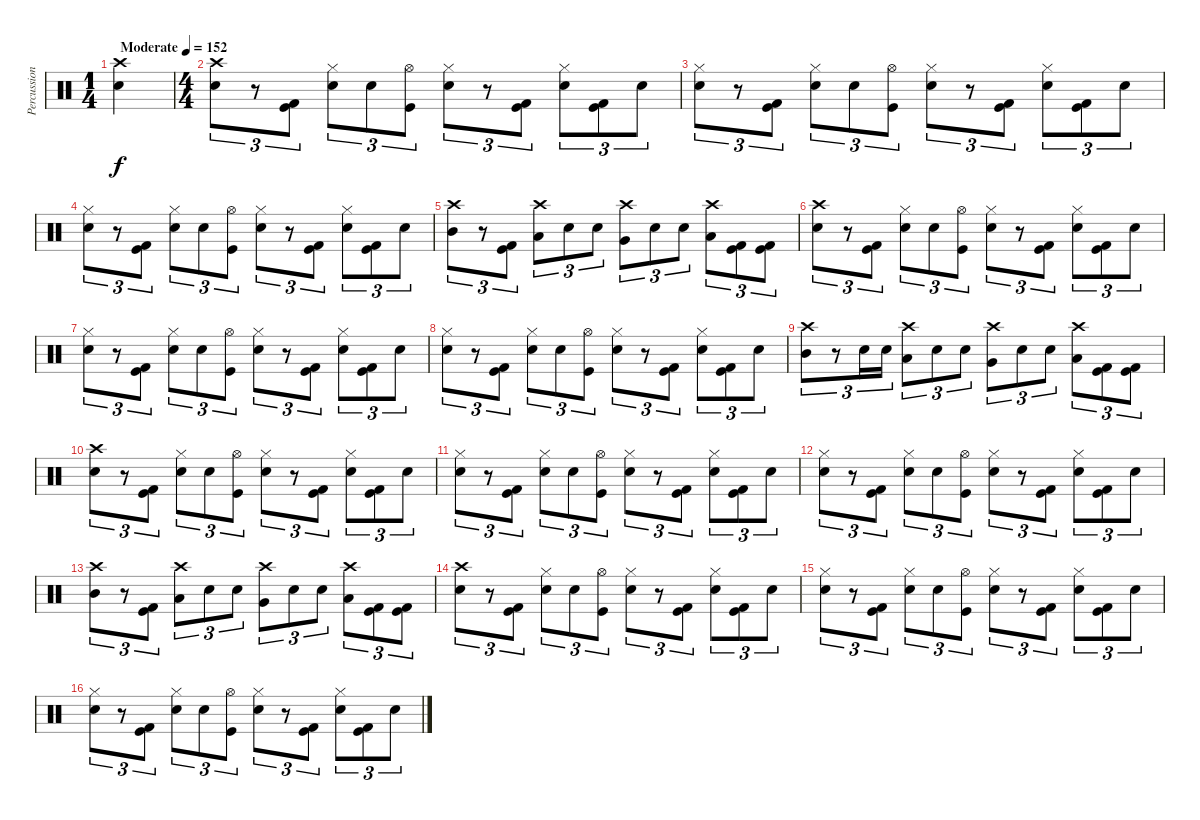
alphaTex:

\track ("Percussion" "Percussion") {instrument percussion}
\staff {score}
\articulation defaults
\ts (1 4)
\tempo (152 "Moderate")
\clef neutral
\ks c
("Crash high (hit)" "Electric Snare (hit)").4{dy f} |
\ts (4 4)
("Crash high (hit)" "Electric Snare (hit)").8{tu (3 2)} r.8{tu (3 2)} ("Kick (hit) 2" "Kick (hit)").8{tu (3 2)} ("Hi-Hat (closed)" "Electric Snare (hit)").8{tu (3 2)} "Electric Snare (hit)".8{tu (3 2)} ("Hi-Hat (open)" "Kick (hit)").8{tu (3 2)} ("Hi-Hat (closed)" "Electric Snare (hit)").8{tu (3 2)} r.8{tu (3 2)} ("Kick (hit) 2" "Kick (hit)").8{tu (3 2)} ("Hi-Hat (closed)" "Electric Snare (hit)").8{tu (3 2)} ("Kick (hit) 2" "Kick (hit)").8{tu (3 2)} "Electric Snare (hit)".8{tu (3 2)} |
("Hi-Hat (closed)" "Electric Snare (hit)").8{tu (3 2)} r.8{tu (3 2)} ("Kick (hit) 2" "Kick (hit)").8{tu (3 2)} ("Hi-Hat (closed)" "Electric Snare (hit)").8{tu (3 2)} "Electric Snare (hit)".8{tu (3 2)} ("Hi-Hat (open)" "Kick (hit)").8{tu (3 2)} ("Hi-Hat (closed)" "Electric Snare (hit)").8{tu (3 2)} r.8{tu (3 2)} ("Kick (hit) 2" "Kick (hit)").8{tu (3 2)} ("Hi-Hat (closed)" "Electric Snare (hit)").8{tu (3 2)} ("Kick (hit) 2" "Kick (hit)").8{tu (3 2)} "Electric Snare (hit)".8{tu (3 2)} |
("Hi-Hat (closed)" "Electric Snare (hit)").8{tu (3 2)} r.8{tu (3 2)} ("Kick (hit) 2" "Kick (hit)").8{tu (3 2)} ("Hi-Hat (closed)" "Electric Snare (hit)").8{tu (3 2)} "Electric Snare (hit)".8{tu (3 2)} ("Hi-Hat (open)" "Kick (hit)").8{tu (3 2)} ("Hi-Hat (closed)" "Electric Snare (hit)").8{tu (3 2)} r.8{tu (3 2)} ("Kick (hit) 2" "Kick (hit)").8{tu (3 2)} ("Hi-Hat (closed)" "Electric Snare (hit)").8{tu (3 2)} ("Kick (hit) 2" "Kick (hit)").8{tu (3 2)} "Electric Snare (hit)".8{tu (3 2)} |
("Crash high (hit)" "Mid Tom (hit)").8{tu (3 2)} r.8{tu (3 2)} ("Kick (hit) 2" "Kick (hit)").8{tu (3 2)} ("Crash high (hit)" "Low Tom (hit)").8{tu (3 2)} "Electric Snare (hit)".8{tu (3 2)} "Electric Snare (hit)".8{tu (3 2)} ("Crash high (hit)" "Very Low Tom (hit)").8{tu (3 2)} "Electric Snare (hit)".8{tu (3 2)} "Electric Snare (hit)".8{tu (3 2)} ("Crash high (hit)" "Low Floor Tom (hit)").8{tu (3 2)} ("Kick (hit) 2" "Kick (hit)").8{tu (3 2)} ("Kick (hit) 2" "Kick (hit)").8{tu (3 2)} |
("Crash high (hit)" "Electric Snare (hit)").8{tu (3 2)} r.8{tu (3 2)} ("Kick (hit) 2" "Kick (hit)").8{tu (3 2)} ("Hi-Hat (closed)" "Electric Snare (hit)").8{tu (3 2)} "Electric Snare (hit)".8{tu (3 2)} ("Hi-Hat (open)" "Kick (hit)").8{tu (3 2)} ("Hi-Hat (closed)" "Electric Snare (hit)").8{tu (3 2)} r.8{tu (3 2)} ("Kick (hit) 2" "Kick (hit)").8{tu (3 2)} ("Hi-Hat (closed)" "Electric Snare (hit)").8{tu (3 2)} ("Kick (hit) 2" "Kick (hit)").8{tu (3 2)} "Electric Snare (hit)".8{tu (3 2)} |
("Hi-Hat (closed)" "Electric Snare (hit)").8{tu (3 2)} r.8{tu (3 2)} ("Kick (hit) 2" "Kick (hit)").8{tu (3 2)} ("Hi-Hat (closed)" "Electric Snare (hit)").8{tu (3 2)} "Electric Snare (hit)".8{tu (3 2)} ("Hi-Hat (open)" "Kick (hit)").8{tu (3 2)} ("Hi-Hat (closed)" "Electric Snare (hit)").8{tu (3 2)} r.8{tu (3 2)} ("Kick (hit) 2" "Kick (hit)").8{tu (3 2)} ("Hi-Hat (closed)" "Electric Snare (hit)").8{tu (3 2)} ("Kick (hit) 2" "Kick (hit)").8{tu (3 2)} "Electric Snare (hit)".8{tu (3 2)} |
("Hi-Hat (closed)" "Electric Snare (hit)").8{tu (3 2)} r.8{tu (3 2)} ("Kick (hit) 2" "Kick (hit)").8{tu (3 2)} ("Hi-Hat (closed)" "Electric Snare (hit)").8{tu (3 2)} "Electric Snare (hit)".8{tu (3 2)} ("Hi-Hat (open)" "Kick (hit)").8{tu (3 2)} ("Hi-Hat (closed)" "Electric Snare (hit)").8{tu (3 2)} r.8{tu (3 2)} ("Kick (hit) 2" "Kick (hit)").8{tu (3 2)} ("Hi-Hat (closed)" "Electric Snare (hit)").8{tu (3 2)} ("Kick (hit) 2" "Kick (hit)").8{tu (3 2)} "Electric Snare (hit)".8{tu (3 2)} |
("Crash high (hit)" "Mid Tom (hit)").8{tu (3 2)} r.8{tu (3 2)} "Electric Snare (hit)".16{tu (3 2)} "Electric Snare (hit)".16{tu (3 2)} ("Crash high (hit)" "Low Tom (hit)").8{tu (3 2)} "Electric Snare (hit)".8{tu (3 2)} "Electric Snare (hit)".8{tu (3 2)} ("Crash high (hit)" "Very Low Tom (hit)").8{tu (3 2)} "Electric Snare (hit)".8{tu (3 2)} "Electric Snare (hit)".8{tu (3 2)} ("Crash high (hit)" "Low Floor Tom (hit)").8{tu (3 2)} ("Kick (hit) 2" "Kick (hit)").8{tu (3 2)} ("Kick (hit) 2" "Kick (hit)").8{tu (3 2)} |
("Crash high (hit)" "Electric Snare (hit)").8{tu (3 2)} r.8{tu (3 2)} ("Kick (hit) 2" "Kick (hit)").8{tu (3 2)} ("Hi-Hat (closed)" "Electric Snare (hit)").8{tu (3 2)} "Electric Snare (hit)".8{tu (3 2)} ("Hi-Hat (open)" "Kick (hit)").8{tu (3 2)} ("Hi-Hat (closed)" "Electric Snare (hit)").8{tu (3 2)} r.8{tu (3 2)} ("Kick (hit) 2" "Kick (hit)").8{tu (3 2)} ("Hi-Hat (closed)" "Electric Snare (hit)").8{tu (3 2)} ("Kick (hit) 2" "Kick (hit)").8{tu (3 2)} "Electric Snare (hit)".8{tu (3 2)} |
("Hi-Hat (closed)" "Electric Snare (hit)").8{tu (3 2)} r.8{tu (3 2)} ("Kick (hit) 2" "Kick (hit)").8{tu (3 2)} ("Hi-Hat (closed)" "Electric Snare (hit)").8{tu (3 2)} "Electric Snare (hit)".8{tu (3 2)} ("Hi-Hat (open)" "Kick (hit)").8{tu (3 2)} ("Hi-Hat (closed)" "Electric Snare (hit)").8{tu (3 2)} r.8{tu (3 2)} ("Kick (hit) 2" "Kick (hit)").8{tu (3 2)} ("Hi-Hat (closed)" "Electric Snare (hit)").8{tu (3 2)} ("Kick (hit) 2" "Kick (hit)").8{tu (3 2)} "Electric Snare (hit)".8{tu (3 2)} |
("Hi-Hat (closed)" "Electric Snare (hit)").8{tu (3 2)} r.8{tu (3 2)} ("Kick (hit) 2" "Kick (hit)").8{tu (3 2)} ("Hi-Hat (closed)" "Electric Snare (hit)").8{tu (3 2)} "Electric Snare (hit)".8{tu (3 2)} ("Hi-Hat (open)" "Kick (hit)").8{tu (3 2)} ("Hi-Hat (closed)" "Electric Snare (hit)").8{tu (3 2)} r.8{tu (3 2)} ("Kick (hit) 2" "Kick (hit)").8{tu (3 2)} ("Hi-Hat (closed)" "Electric Snare (hit)").8{tu (3 2)} ("Kick (hit) 2" "Kick (hit)").8{tu (3 2)} "Electric Snare (hit)".8{tu (3 2)} |
("Crash high (hit)" "Mid Tom (hit)").8{tu (3 2)} r.8{tu (3 2)} ("Kick (hit) 2" "Kick (hit)").8{tu (3 2)} ("Crash high (hit)" "Low Tom (hit)").8{tu (3 2)} "Electric Snare (hit)".8{tu (3 2)} "Electric Snare (hit)".8{tu (3 2)} ("Crash high (hit)" "Very Low Tom (hit)").8{tu (3 2)} "Electric Snare (hit)".8{tu (3 2)} "Electric Snare (hit)".8{tu (3 2)} ("Crash high (hit)" "Low Floor Tom (hit)").8{tu (3 2)} ("Kick (hit) 2" "Kick (hit)").8{tu (3 2)} ("Kick (hit) 2" "Kick (hit)").8{tu (3 2)} |
("Crash high (hit)" "Electric Snare (hit)").8{tu (3 2)} r.8{tu (3 2)} ("Kick (hit) 2" "Kick (hit)").8{tu (3 2)} ("Hi-Hat (closed)" "Electric Snare (hit)").8{tu (3 2)} "Electric Snare (hit)".8{tu (3 2)} ("Hi-Hat (open)" "Kick (hit)").8{tu (3 2)} ("Hi-Hat (closed)" "Electric Snare (hit)").8{tu (3 2)} r.8{tu (3 2)} ("Kick (hit) 2" "Kick (hit)").8{tu (3 2)} ("Hi-Hat (closed)" "Electric Snare (hit)").8{tu (3 2)} ("Kick (hit) 2" "Kick (hit)").8{tu (3 2)} "Electric Snare (hit)".8{tu (3 2)} |
("Hi-Hat (closed)" "Electric Snare (hit)").8{tu (3 2)} r.8{tu (3 2)} ("Kick (hit) 2" "Kick (hit)").8{tu (3 2)} ("Hi-Hat (closed)" "Electric Snare (hit)").8{tu (3 2)} "Electric Snare (hit)".8{tu (3 2)} ("Hi-Hat (open)" "Kick (hit)").8{tu (3 2)} ("Hi-Hat (closed)" "Electric Snare (hit)").8{tu (3 2)} r.8{tu (3 2)} ("Kick (hit) 2" "Kick (hit)").8{tu (3 2)} ("Hi-Hat (closed)" "Electric Snare (hit)").8{tu (3 2)} ("Kick (hit) 2" "Kick (hit)").8{tu (3 2)} "Electric Snare (hit)".8{tu (3 2)} |
("Hi-Hat (closed)" "Electric Snare (hit)").8{tu (3 2)} r.8{tu (3 2)} ("Kick (hit) 2" "Kick (hit)").8{tu (3 2)} ("Hi-Hat (closed)" "Electric Snare (hit)").8{tu (3 2)} "Electric Snare (hit)".8{tu (3 2)} ("Hi-Hat (open)" "Kick (hit)").8{tu (3 2)} ("Hi-Hat (closed)" "Electric Snare (hit)").8{tu (3 2)} r.8{tu (3 2)} ("Kick (hit) 2" "Kick (hit)").8{tu (3 2)} ("Hi-Hat (closed)" "Electric Snare (hit)").8{tu (3 2)} ("Kick (hit) 2" "Kick (hit)").8{tu (3 2)} "Electric Snare (hit)".8{tu (3 2)}
